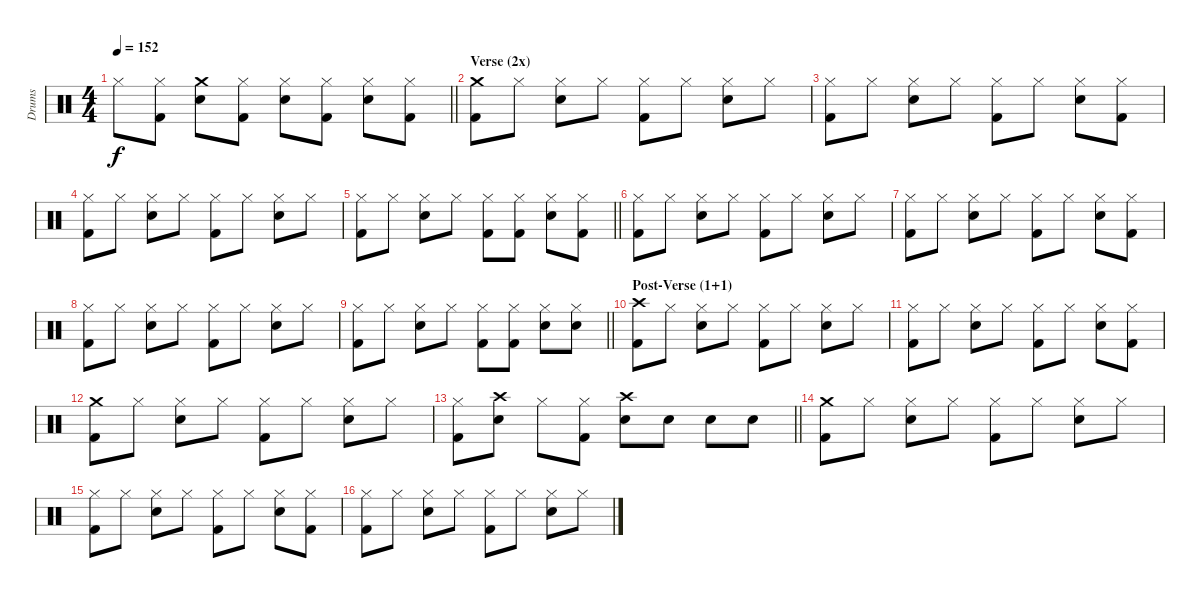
\track ("Drums" "Drums") {instrument percussion}
\staff
\articulation defaults
\ts (4 4)
\tempo 152
\clef neutral
\barLineRight lightlight
\ks c "Hi-Hat (closed)".8{dy f}
("Hi-Hat (closed)" "Kick (hit) 2").8 ("Crash medium (hit)" "Electric Snare (hit)").8 ("Hi-Hat (closed)" "Kick (hit) 2").8 ("Hi-Hat (closed)" "Electric Snare (hit)").8 ("Hi-Hat (closed)" "Kick (hit) 2").8 ("Hi-Hat (closed)" "Electric Snare (hit)").8 ("Hi-Hat (closed)" "Kick (hit) 2").8 |
\section ("" "Verse (2x)")
("Crash medium (hit)" "Kick (hit) 2").8 "Hi-Hat (closed)".8 ("Hi-Hat (closed)" "Electric Snare (hit)").8 "Hi-Hat (closed)".8 ("Hi-Hat (closed)" "Kick (hit) 2").8 "Hi-Hat (closed)".8 ("Hi-Hat (closed)" "Electric Snare (hit)").8 "Hi-Hat (closed)".8 |
("Hi-Hat (closed)" "Kick (hit) 2").8 "Hi-Hat (closed)".8 ("Hi-Hat (closed)" "Electric Snare (hit)").8 "Hi-Hat (closed)".8 ("Hi-Hat (closed)" "Kick (hit) 2").8 "Hi-Hat (closed)".8 ("Hi-Hat (closed)" "Electric Snare (hit)").8 ("Hi-Hat (closed)" "Kick (hit) 2").8 |
("Hi-Hat (closed)" "Kick (hit) 2").8 "Hi-Hat (closed)".8 ("Hi-Hat (closed)" "Electric Snare (hit)").8 "Hi-Hat (closed)".8 ("Hi-Hat (closed)" "Kick (hit) 2").8 "Hi-Hat (closed)".8 ("Hi-Hat (closed)" "Electric Snare (hit)").8 "Hi-Hat (closed)".8 |
\barLineRight lightlight
("Hi-Hat (closed)" "Kick (hit) 2").8 "Hi-Hat (closed)".8 ("Hi-Hat (closed)" "Electric Snare (hit)").8 "Hi-Hat (closed)".8 ("Hi-Hat (closed)" "Kick (hit) 2").8 ("Hi-Hat (closed)" "Kick (hit) 2").8 ("Hi-Hat (closed)" "Electric Snare (hit)").8 ("Hi-Hat (closed)" "Kick (hit) 2").8 |
("Hi-Hat (closed)" "Kick (hit) 2").8 "Hi-Hat (closed)".8 ("Hi-Hat (closed)" "Electric Snare (hit)").8 "Hi-Hat (closed)".8 ("Hi-Hat (closed)" "Kick (hit) 2").8 "Hi-Hat (closed)".8 ("Hi-Hat (closed)" "Electric Snare (hit)").8 "Hi-Hat (closed)".8 |
("Hi-Hat (closed)" "Kick (hit) 2").8 "Hi-Hat (closed)".8 ("Hi-Hat (closed)" "Electric Snare (hit)").8 "Hi-Hat (closed)".8 ("Hi-Hat (closed)" "Kick (hit) 2").8 "Hi-Hat (closed)".8 ("Hi-Hat (closed)" "Electric Snare (hit)").8 ("Hi-Hat (closed)" "Kick (hit) 2").8 |
("Hi-Hat (closed)" "Kick (hit) 2").8 "Hi-Hat (closed)".8 ("Hi-Hat (closed)" "Electric Snare (hit)").8 "Hi-Hat (closed)".8 ("Hi-Hat (closed)" "Kick (hit) 2").8 "Hi-Hat (closed)".8 ("Hi-Hat (closed)" "Electric Snare (hit)").8 "Hi-Hat (closed)".8 |
\barLineRight lightlight
("Hi-Hat (closed)" "Kick (hit) 2").8 "Hi-Hat (closed)".8 ("Hi-Hat (closed)" "Electric Snare (hit)").8 "Hi-Hat (closed)".8 ("Hi-Hat (closed)" "Kick (hit) 2").8 ("Hi-Hat (closed)" "Kick (hit) 2").8 ("Hi-Hat (closed)" "Electric Snare (hit)").8 ("Hi-Hat (closed)" "Electric Snare (hit)").8 |
\section ("" "Post-Verse (1+1)")
("Crash high (hit)" "Kick (hit) 2").8 "Hi-Hat (closed)".8 ("Hi-Hat (closed)" "Electric Snare (hit)").8 "Hi-Hat (closed)".8 ("Hi-Hat (closed)" "Kick (hit) 2").8 "Hi-Hat (closed)".8 ("Hi-Hat (closed)" "Electric Snare (hit)").8 "Hi-Hat (closed)".8 |
("Hi-Hat (closed)" "Kick (hit) 2").8 "Hi-Hat (closed)".8 ("Hi-Hat (closed)" "Electric Snare (hit)").8 "Hi-Hat (closed)".8 ("Hi-Hat (closed)" "Kick (hit) 2").8 "Hi-Hat (closed)".8 ("Hi-Hat (closed)" "Electric Snare (hit)").8 ("Hi-Hat (closed)" "Kick (hit) 2").8 |
("Crash medium (hit)" "Kick (hit) 2").8 "Hi-Hat (closed)".8 ("Hi-Hat (closed)" "Electric Snare (hit)").8 "Hi-Hat (closed)".8 ("Hi-Hat (closed)" "Kick (hit) 2").8 "Hi-Hat (closed)".8 ("Hi-Hat (closed)" "Electric Snare (hit)").8 "Hi-Hat (closed)".8 |
\barLineRight lightlight
("Hi-Hat (closed)" "Kick (hit) 2").8 ("Crash high (hit)" "Electric Snare (hit)").8 "Hi-Hat (closed)".8 ("Hi-Hat (closed)" "Kick (hit) 2").8 ("Crash high (hit)" "Electric Snare (hit)").8 "Electric Snare (hit)".8 "Electric Snare (hit)".8 "Electric Snare (hit)".8 |
("Crash medium (hit)" "Kick (hit) 2").8 "Hi-Hat (closed)".8 ("Hi-Hat (closed)" "Electric Snare (hit)").8 "Hi-Hat (closed)".8 ("Hi-Hat (closed)" "Kick (hit) 2").8 "Hi-Hat (closed)".8 ("Hi-Hat (closed)" "Electric Snare (hit)").8 "Hi-Hat (closed)".8 |
("Hi-Hat (closed)" "Kick (hit) 2").8 "Hi-Hat (closed)".8 ("Hi-Hat (closed)" "Electric Snare (hit)").8 "Hi-Hat (closed)".8 ("Hi-Hat (closed)" "Kick (hit) 2").8 "Hi-Hat (closed)".8 ("Hi-Hat (closed)" "Electric Snare (hit)").8 ("Hi-Hat (closed)" "Kick (hit) 2").8 |
("Hi-Hat (closed)" "Kick (hit) 2").8 "Hi-Hat (closed)".8 ("Hi-Hat (closed)" "Electric Snare (hit)").8 "Hi-Hat (closed)".8 ("Hi-Hat (closed)" "Kick (hit) 2").8 "Hi-Hat (closed)".8 ("Hi-Hat (closed)" "Electric Snare (hit)").8 "Hi-Hat (closed)".8
